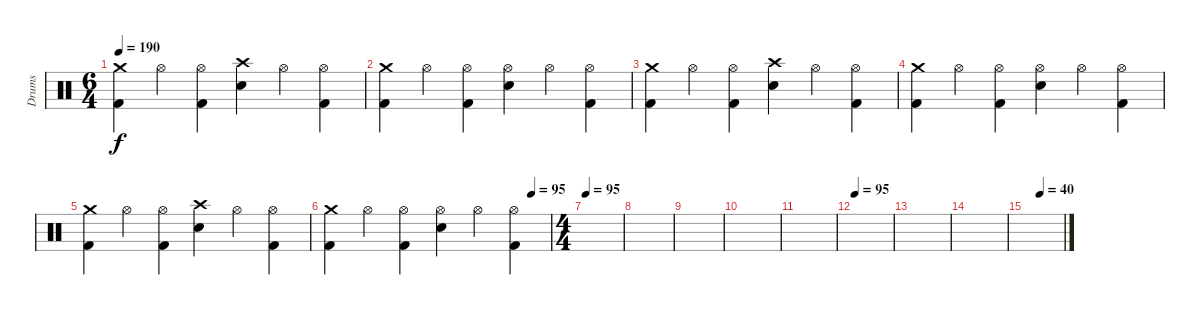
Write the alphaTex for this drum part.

\track ("Drums" "Drums") {instrument percussion}
\staff {score}
\articulation defaults
\ts (6 4)
\tempo 190
\clef neutral
\ks c
("Crash medium (hit)" "Kick (hit) 2").4{dy f} "Hi-Hat (open)".4 ("Hi-Hat (open)" "Kick (hit) 2").4 ("Crash high (hit)" "Electric Snare (hit)").4 "Hi-Hat (open)".4 ("Hi-Hat (open)" "Kick (hit) 2").4 |
("Crash medium (hit)" "Kick (hit) 2").4 "Hi-Hat (open)".4 ("Hi-Hat (open)" "Kick (hit) 2").4 ("Hi-Hat (open)" "Electric Snare (hit)").4 "Hi-Hat (open)".4 ("Hi-Hat (open)" "Kick (hit) 2").4 |
("Crash medium (hit)" "Kick (hit) 2").4 "Hi-Hat (open)".4 ("Hi-Hat (open)" "Kick (hit) 2").4 ("Crash high (hit)" "Electric Snare (hit)").4 "Hi-Hat (open)".4 ("Hi-Hat (open)" "Kick (hit) 2").4 |
("Crash medium (hit)" "Kick (hit) 2").4 "Hi-Hat (open)".4 ("Hi-Hat (open)" "Kick (hit) 2").4 ("Hi-Hat (open)" "Electric Snare (hit)").4 "Hi-Hat (open)".4 ("Hi-Hat (open)" "Kick (hit) 2").4 |
("Crash medium (hit)" "Kick (hit) 2").4 "Hi-Hat (open)".4 ("Hi-Hat (open)" "Kick (hit) 2").4 ("Crash high (hit)" "Electric Snare (hit)").4 "Hi-Hat (open)".4 ("Hi-Hat (open)" "Kick (hit) 2").4 |
\tempo (95 0.9166666666666666)
("Crash medium (hit)" "Kick (hit) 2").4 "Hi-Hat (open)".4 ("Hi-Hat (open)" "Kick (hit) 2").4 ("Hi-Hat (open)" "Electric Snare (hit)").4 "Hi-Hat (open)".4 ("Hi-Hat (open)" "Kick (hit) 2").4 |
\ts (4 4)
\tempo 95
|
|
|
|
|
\tempo 95
|
|
|
\tempo (40 0.375)
